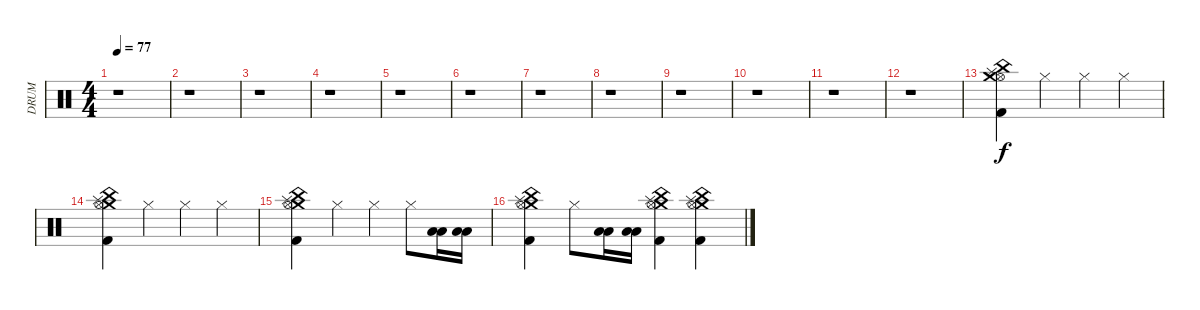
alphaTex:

\track (" DRUM" " DRUM") {instrument percussion}
\staff {score}
\articulation defaults
\ts (4 4)
\tempo 77
\clef neutral
\ks c
r.1{dy f} |
r.1 |
r.1 |
r.1 |
r.1 |
r.1 |
r.1 |
r.1 |
r.1 |
r.1 |
r.1 |
r.1 |
("Splash (hit)" "China (hit)" "Hi-Hat (open)" "Crash medium (hit)" "Kick (hit) 2").4 "Hi-Hat (closed)".4 "Hi-Hat (closed)".4 "Hi-Hat (closed)".4 |
("Splash (hit)" "China (hit)" "Crash medium (hit)" "Hi-Hat (open)" "Kick (hit) 2").4 "Hi-Hat (closed)".4 "Hi-Hat (closed)".4 "Hi-Hat (closed)".4 |
("Splash (hit)" "China (hit)" "Crash medium (hit)" "Hi-Hat (open)" "Kick (hit) 2").4 "Hi-Hat (closed)".4 "Hi-Hat (closed)".4 "Hi-Hat (closed)".8 ("Low Tom (hit)" "Low Floor Tom (hit)").16 ("Low Tom (hit)" "Low Floor Tom (hit)").16 |
("Splash (hit)" "China (hit)" "Crash medium (hit)" "Hi-Hat (open)" "Kick (hit) 2").4 "Hi-Hat (closed)".8 ("Low Tom (hit)" "Low Floor Tom (hit)").16 ("Low Tom (hit)" "Low Floor Tom (hit)").16 ("China (hit)" "Splash (hit)" "Crash medium (hit)" "Hi-Hat (open)" "Kick (hit) 2").4 ("China (hit)" "Splash (hit)" "Crash medium (hit)" "Hi-Hat (open)" "Kick (hit) 2").4
